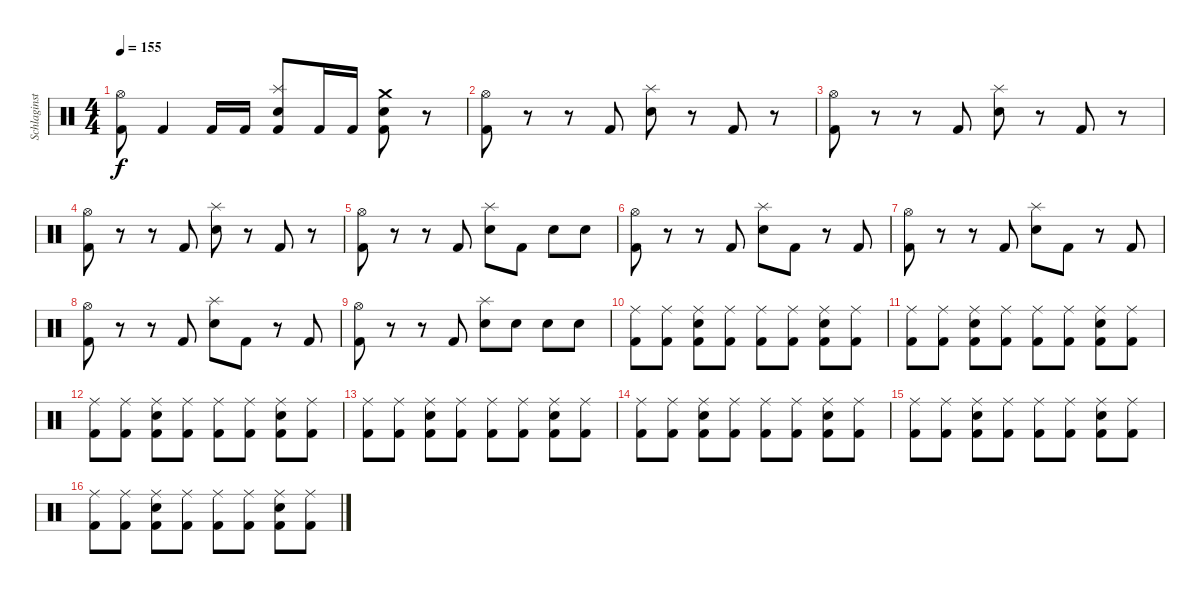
\track ("Schlaginstrumente - Auswahl" "Schlaginst") {instrument percussion}
\staff {score}
\articulation defaults
\ts (4 4)
\tempo 155
\clef neutral
\ks c
("Hi-Hat (open)" "Kick (hit) 2").8{dy f} "Kick (hit) 2".4 "Kick (hit) 2".16 "Kick (hit) 2".16 ("Splash (hit)" "Snare (hit) 2" "Kick (hit) 2").8 "Kick (hit) 2".16 "Kick (hit) 2".16 ("Crash medium (hit)" "Snare (hit) 2" "Kick (hit) 2").8 r.8 |
("Hi-Hat (open)" "Kick (hit) 2").8 r.8 r.8 "Kick (hit) 2".8 ("Splash (hit)" "Snare (hit) 2").8 r.8 "Kick (hit) 2".8 r.8 |
("Hi-Hat (open)" "Kick (hit) 2").8 r.8 r.8 "Kick (hit) 2".8 ("Splash (hit)" "Snare (hit) 2").8 r.8 "Kick (hit) 2".8 r.8 |
("Hi-Hat (open)" "Kick (hit) 2").8 r.8 r.8 "Kick (hit) 2".8 ("Splash (hit)" "Snare (hit) 2").8 r.8 "Kick (hit) 2".8 r.8 |
("Hi-Hat (open)" "Kick (hit) 2").8 r.8 r.8 "Kick (hit) 2".8 ("Splash (hit)" "Snare (hit) 2").8 "Kick (hit) 2".8 "Snare (hit) 2".8 "Snare (hit) 2".8 |
("Hi-Hat (open)" "Kick (hit) 2").8 r.8 r.8 "Kick (hit) 2".8 ("Splash (hit)" "Snare (hit) 2").8 "Kick (hit) 2".8 r.8 "Kick (hit) 2".8 |
("Hi-Hat (open)" "Kick (hit) 2").8 r.8 r.8 "Kick (hit) 2".8 ("Splash (hit)" "Snare (hit) 2").8 "Kick (hit) 2".8 r.8 "Kick (hit) 2".8 |
("Hi-Hat (open)" "Kick (hit) 2").8 r.8 r.8 "Kick (hit) 2".8 ("Splash (hit)" "Snare (hit) 2").8 "Kick (hit) 2".8 r.8 "Kick (hit) 2".8 |
("Hi-Hat (open)" "Kick (hit) 2").8 r.8 r.8 "Kick (hit) 2".8 ("Splash (hit)" "Snare (hit) 2").8 "Snare (hit) 2".8 "Snare (hit) 2".8 "Snare (hit) 2".8 |
("Ride (middle)" "Kick (hit) 2").8 ("Ride (middle)" "Kick (hit) 2").8 ("Ride (middle)" "Snare (hit) 2" "Kick (hit) 2").8 ("Ride (middle)" "Kick (hit) 2").8 ("Ride (middle)" "Kick (hit) 2").8 ("Ride (middle)" "Kick (hit) 2").8 ("Ride (middle)" "Snare (hit) 2" "Kick (hit) 2").8 ("Ride (middle)" "Kick (hit) 2").8 |
("Ride (middle)" "Kick (hit) 2").8 ("Ride (middle)" "Kick (hit) 2").8 ("Ride (middle)" "Snare (hit) 2" "Kick (hit) 2").8 ("Ride (middle)" "Kick (hit) 2").8 ("Ride (middle)" "Kick (hit) 2").8 ("Ride (middle)" "Kick (hit) 2").8 ("Ride (middle)" "Snare (hit) 2" "Kick (hit) 2").8 ("Ride (middle)" "Kick (hit) 2").8 |
("Ride (middle)" "Kick (hit) 2").8 ("Ride (middle)" "Kick (hit) 2").8 ("Ride (middle)" "Snare (hit) 2" "Kick (hit) 2").8 ("Ride (middle)" "Kick (hit) 2").8 ("Ride (middle)" "Kick (hit) 2").8 ("Ride (middle)" "Kick (hit) 2").8 ("Ride (middle)" "Snare (hit) 2" "Kick (hit) 2").8 ("Ride (middle)" "Kick (hit) 2").8 |
("Ride (middle)" "Kick (hit) 2").8 ("Ride (middle)" "Kick (hit) 2").8 ("Ride (middle)" "Snare (hit) 2" "Kick (hit) 2").8 ("Ride (middle)" "Kick (hit) 2").8 ("Ride (middle)" "Kick (hit) 2").8 ("Ride (middle)" "Kick (hit) 2").8 ("Ride (middle)" "Snare (hit) 2" "Kick (hit) 2").8 ("Ride (middle)" "Kick (hit) 2").8 |
("Ride (middle)" "Kick (hit) 2").8 ("Ride (middle)" "Kick (hit) 2").8 ("Ride (middle)" "Snare (hit) 2" "Kick (hit) 2").8 ("Ride (middle)" "Kick (hit) 2").8 ("Ride (middle)" "Kick (hit) 2").8 ("Ride (middle)" "Kick (hit) 2").8 ("Ride (middle)" "Snare (hit) 2" "Kick (hit) 2").8 ("Ride (middle)" "Kick (hit) 2").8 |
("Ride (middle)" "Kick (hit) 2").8 ("Ride (middle)" "Kick (hit) 2").8 ("Ride (middle)" "Snare (hit) 2" "Kick (hit) 2").8 ("Ride (middle)" "Kick (hit) 2").8 ("Ride (middle)" "Kick (hit) 2").8 ("Ride (middle)" "Kick (hit) 2").8 ("Ride (middle)" "Snare (hit) 2" "Kick (hit) 2").8 ("Ride (middle)" "Kick (hit) 2").8 |
("Ride (middle)" "Kick (hit) 2").8 ("Ride (middle)" "Kick (hit) 2").8 ("Ride (middle)" "Snare (hit) 2" "Kick (hit) 2").8 ("Ride (middle)" "Kick (hit) 2").8 ("Ride (middle)" "Kick (hit) 2").8 ("Ride (middle)" "Kick (hit) 2").8 ("Ride (middle)" "Snare (hit) 2" "Kick (hit) 2").8 ("Ride (middle)" "Kick (hit) 2").8
